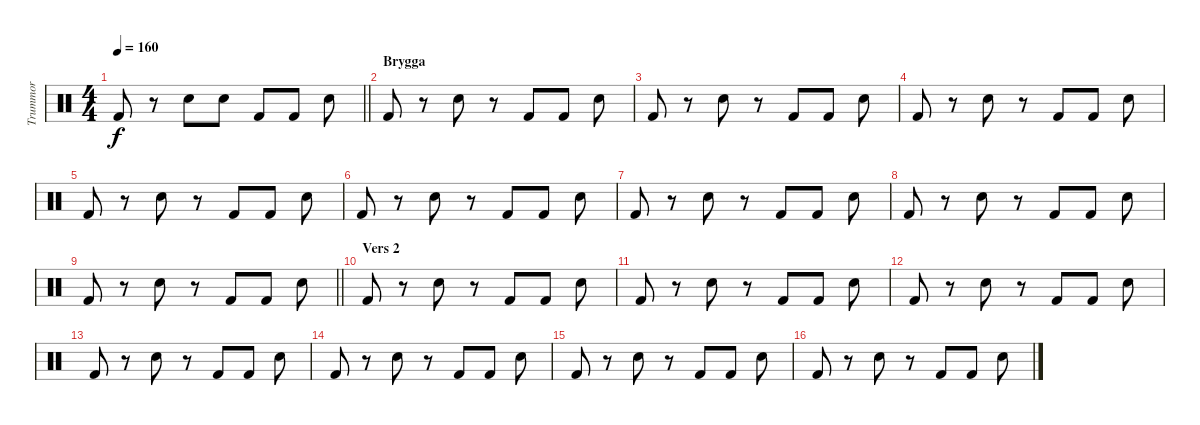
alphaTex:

\track ("Trummor" "Trummor") {instrument percussion}
\staff {score}
\articulation defaults
\ts (4 4)
\tempo 160
\clef neutral
\barLineRight lightlight
\ks c "Kick (hit) 2".8{dy f}
r.8 "Snare (hit) 2".8 "Snare (hit) 2".8 "Kick (hit) 2".8 "Kick (hit) 2".8 "Snare (hit) 2".8 |
\section ("" "Brygga")
"Kick (hit) 2".8 r.8 "Snare (hit) 2".8 r.8 "Kick (hit) 2".8 "Kick (hit) 2".8 "Snare (hit) 2".8 |
"Kick (hit) 2".8 r.8 "Snare (hit) 2".8 r.8 "Kick (hit) 2".8 "Kick (hit) 2".8 "Snare (hit) 2".8 |
"Kick (hit) 2".8 r.8 "Snare (hit) 2".8 r.8 "Kick (hit) 2".8 "Kick (hit) 2".8 "Snare (hit) 2".8 |
"Kick (hit) 2".8 r.8 "Snare (hit) 2".8 r.8 "Kick (hit) 2".8 "Kick (hit) 2".8 "Snare (hit) 2".8 |
"Kick (hit) 2".8 r.8 "Snare (hit) 2".8 r.8 "Kick (hit) 2".8 "Kick (hit) 2".8 "Snare (hit) 2".8 |
"Kick (hit) 2".8 r.8 "Snare (hit) 2".8 r.8 "Kick (hit) 2".8 "Kick (hit) 2".8 "Snare (hit) 2".8 |
"Kick (hit) 2".8 r.8 "Snare (hit) 2".8 r.8 "Kick (hit) 2".8 "Kick (hit) 2".8 "Snare (hit) 2".8 |
\barLineRight lightlight "Kick (hit) 2".8
r.8 "Snare (hit) 2".8 r.8 "Kick (hit) 2".8 "Kick (hit) 2".8 "Snare (hit) 2".8 |
\section ("" "Vers 2")
"Kick (hit) 2".8 r.8 "Snare (hit) 2".8 r.8 "Kick (hit) 2".8 "Kick (hit) 2".8 "Snare (hit) 2".8 |
"Kick (hit) 2".8 r.8 "Snare (hit) 2".8 r.8 "Kick (hit) 2".8 "Kick (hit) 2".8 "Snare (hit) 2".8 |
"Kick (hit) 2".8 r.8 "Snare (hit) 2".8 r.8 "Kick (hit) 2".8 "Kick (hit) 2".8 "Snare (hit) 2".8 |
"Kick (hit) 2".8 r.8 "Snare (hit) 2".8 r.8 "Kick (hit) 2".8 "Kick (hit) 2".8 "Snare (hit) 2".8 |
"Kick (hit) 2".8 r.8 "Snare (hit) 2".8 r.8 "Kick (hit) 2".8 "Kick (hit) 2".8 "Snare (hit) 2".8 |
"Kick (hit) 2".8 r.8 "Snare (hit) 2".8 r.8 "Kick (hit) 2".8 "Kick (hit) 2".8 "Snare (hit) 2".8 |
"Kick (hit) 2".8 r.8 "Snare (hit) 2".8 r.8 "Kick (hit) 2".8 "Kick (hit) 2".8 "Snare (hit) 2".8
